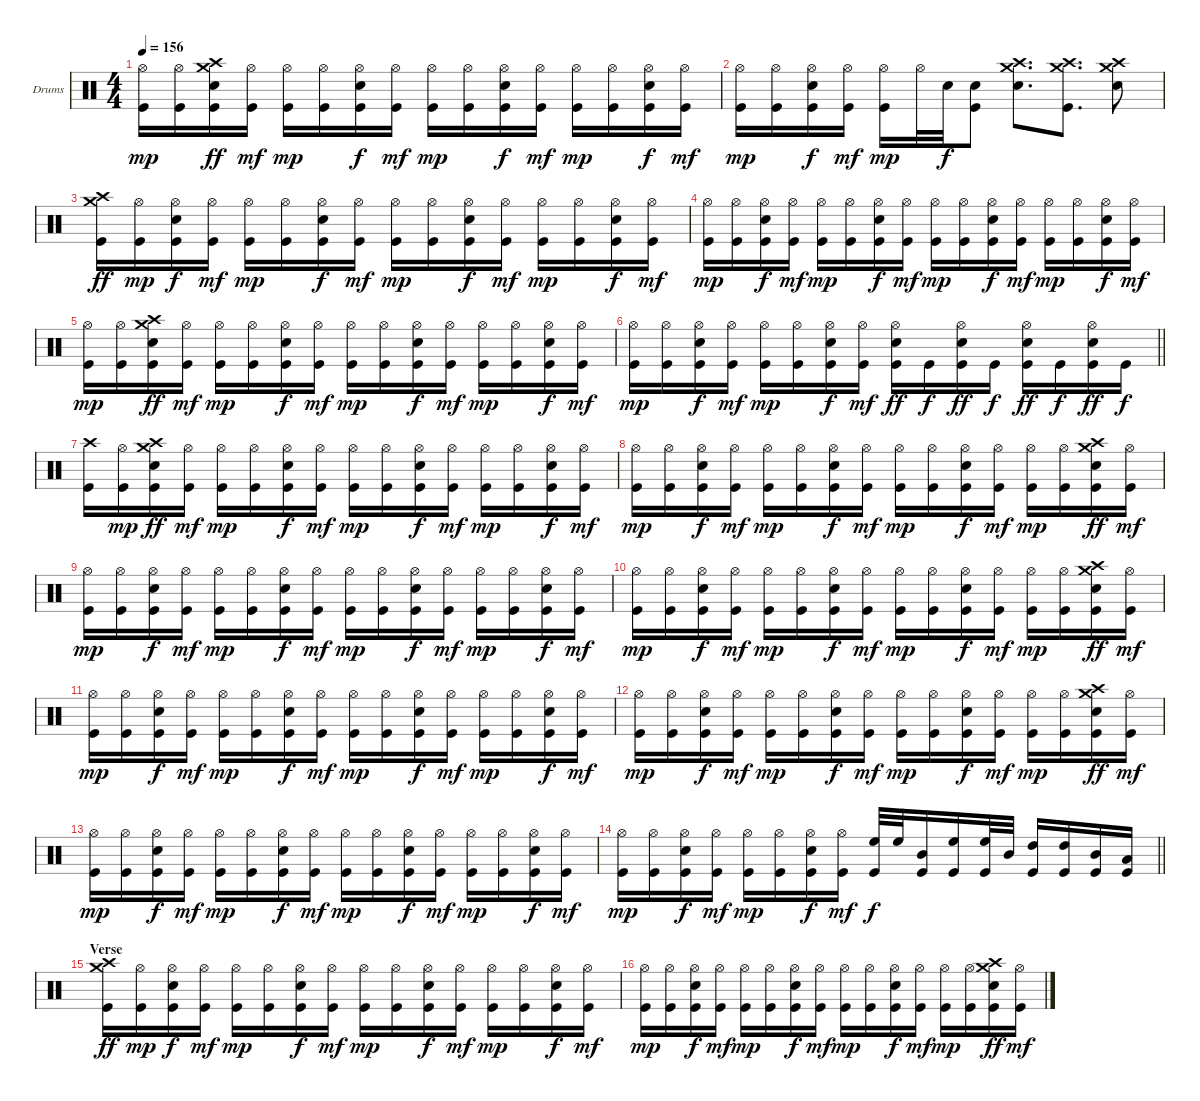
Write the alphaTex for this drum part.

\bracketExtendMode groupsimilarinstruments
\firstSystemTrackNameOrientation horizontal
\otherSystemsTrackNameOrientation horizontal
\track ("Drums" "Drums") {instrument percussion}
\staff {score}
\articulation defaults
\ts (4 4)
\tempo 156
\clef neutral
\ks c
("Hi-Hat (open)" "Kick (hit)").16{dy mp} ("Hi-Hat (open)" "Kick (hit)").16 ("Crash medium (hit)" "Crash high (hit)" "Snare (hit) 2" "Kick (hit)").16{dy ff} ("Hi-Hat (open)" "Kick (hit)").16{dy mf} ("Hi-Hat (open)" "Kick (hit)").16{dy mp} ("Hi-Hat (open)" "Kick (hit)").16 ("Hi-Hat (open)" "Snare (hit) 2" "Kick (hit)").16{dy f} ("Hi-Hat (open)" "Kick (hit)").16{dy mf} ("Hi-Hat (open)" "Kick (hit)").16{dy mp} ("Hi-Hat (open)" "Kick (hit)").16 ("Hi-Hat (open)" "Snare (hit) 2" "Kick (hit)").16{dy f} ("Hi-Hat (open)" "Kick (hit)").16{dy mf} ("Hi-Hat (open)" "Kick (hit)").16{dy mp} ("Hi-Hat (open)" "Kick (hit)").16 ("Hi-Hat (open)" "Snare (hit) 2" "Kick (hit)").16{dy f} ("Hi-Hat (open)" "Kick (hit)").16{dy mf} |
("Hi-Hat (open)" "Kick (hit)").16{dy mp} ("Hi-Hat (open)" "Kick (hit)").16 ("Hi-Hat (open)" "Snare (hit) 2" "Kick (hit)").16{dy f} ("Hi-Hat (open)" "Kick (hit)").16{dy mf} ("Hi-Hat (open)" "Kick (hit)").16{dy mp} "Hi-Hat (open)".32 "Snare (hit) 2".32{dy f} ("Snare (hit) 2" "Kick (hit)").8 ("Crash medium (hit)" "Crash high (hit)" "Snare (hit) 2").8{d} ("Crash medium (hit)" "Crash high (hit)" "Kick (hit)").8{d} ("Crash medium (hit)" "Crash high (hit)" "Snare (hit) 2").8 |
("Crash medium (hit)" "Crash high (hit)" "Kick (hit)").16{dy ff} ("Hi-Hat (open)" "Kick (hit)").16{dy mp} ("Hi-Hat (open)" "Snare (hit) 2" "Kick (hit)").16{dy f} ("Hi-Hat (open)" "Kick (hit)").16{dy mf} ("Hi-Hat (open)" "Kick (hit)").16{dy mp} ("Hi-Hat (open)" "Kick (hit)").16 ("Hi-Hat (open)" "Snare (hit) 2" "Kick (hit)").16{dy f} ("Hi-Hat (open)" "Kick (hit)").16{dy mf} ("Hi-Hat (open)" "Kick (hit)").16{dy mp} ("Hi-Hat (open)" "Kick (hit)").16 ("Hi-Hat (open)" "Snare (hit) 2" "Kick (hit)").16{dy f} ("Hi-Hat (open)" "Kick (hit)").16{dy mf} ("Hi-Hat (open)" "Kick (hit)").16{dy mp} ("Hi-Hat (open)" "Kick (hit)").16 ("Hi-Hat (open)" "Snare (hit) 2" "Kick (hit)").16{dy f} ("Hi-Hat (open)" "Kick (hit)").16{dy mf} |
("Hi-Hat (open)" "Kick (hit)").16{dy mp} ("Hi-Hat (open)" "Kick (hit)").16 ("Hi-Hat (open)" "Snare (hit) 2" "Kick (hit)").16{dy f} ("Hi-Hat (open)" "Kick (hit)").16{dy mf} ("Hi-Hat (open)" "Kick (hit)").16{dy mp} ("Hi-Hat (open)" "Kick (hit)").16 ("Hi-Hat (open)" "Snare (hit) 2" "Kick (hit)").16{dy f} ("Hi-Hat (open)" "Kick (hit)").16{dy mf} ("Hi-Hat (open)" "Kick (hit)").16{dy mp} ("Hi-Hat (open)" "Kick (hit)").16 ("Hi-Hat (open)" "Snare (hit) 2" "Kick (hit)").16{dy f} ("Hi-Hat (open)" "Kick (hit)").16{dy mf} ("Hi-Hat (open)" "Kick (hit)").16{dy mp} ("Hi-Hat (open)" "Kick (hit)").16 ("Hi-Hat (open)" "Snare (hit) 2" "Kick (hit)").16{dy f} ("Hi-Hat (open)" "Kick (hit)").16{dy mf} |
("Hi-Hat (open)" "Kick (hit)").16{dy mp} ("Hi-Hat (open)" "Kick (hit)").16 ("Crash medium (hit)" "Crash high (hit)" "Snare (hit) 2" "Kick (hit)").16{dy ff} ("Hi-Hat (open)" "Kick (hit)").16{dy mf} ("Hi-Hat (open)" "Kick (hit)").16{dy mp} ("Hi-Hat (open)" "Kick (hit)").16 ("Hi-Hat (open)" "Snare (hit) 2" "Kick (hit)").16{dy f} ("Hi-Hat (open)" "Kick (hit)").16{dy mf} ("Hi-Hat (open)" "Kick (hit)").16{dy mp} ("Hi-Hat (open)" "Kick (hit)").16 ("Hi-Hat (open)" "Snare (hit) 2" "Kick (hit)").16{dy f} ("Hi-Hat (open)" "Kick (hit)").16{dy mf} ("Hi-Hat (open)" "Kick (hit)").16{dy mp} ("Hi-Hat (open)" "Kick (hit)").16 ("Hi-Hat (open)" "Snare (hit) 2" "Kick (hit)").16{dy f} ("Hi-Hat (open)" "Kick (hit)").16{dy mf} |
\barLineRight lightlight
("Hi-Hat (open)" "Kick (hit)").16{dy mp} ("Hi-Hat (open)" "Kick (hit)").16 ("Hi-Hat (open)" "Snare (hit) 2" "Kick (hit)").16{dy f} ("Hi-Hat (open)" "Kick (hit)").16{dy mf} ("Hi-Hat (open)" "Kick (hit)").16{dy mp} ("Hi-Hat (open)" "Kick (hit)").16 ("Hi-Hat (open)" "Snare (hit) 2" "Kick (hit)").16{dy f} ("Hi-Hat (open)" "Kick (hit)").16{dy mf} ("Hi-Hat (open)" "Snare (hit) 2" "Kick (hit)").16{dy ff} "Kick (hit)".16{dy f} ("Hi-Hat (open)" "Snare (hit) 2" "Kick (hit)").16{dy ff} "Kick (hit)".16{dy f} ("Hi-Hat (open)" "Snare (hit) 2" "Kick (hit)").16{dy ff} "Kick (hit)".16{dy f} ("Hi-Hat (open)" "Snare (hit) 2" "Kick (hit)").16{dy ff} "Kick (hit)".16{dy f} |
("Crash high (hit)" "Kick (hit)").16 ("Hi-Hat (open)" "Kick (hit)").16{dy mp} ("Crash medium (hit)" "Crash high (hit)" "Snare (hit) 2" "Kick (hit)").16{dy ff} ("Hi-Hat (open)" "Kick (hit)").16{dy mf} ("Hi-Hat (open)" "Kick (hit)").16{dy mp} ("Hi-Hat (open)" "Kick (hit)").16 ("Hi-Hat (open)" "Snare (hit) 2" "Kick (hit)").16{dy f} ("Hi-Hat (open)" "Kick (hit)").16{dy mf} ("Hi-Hat (open)" "Kick (hit)").16{dy mp} ("Hi-Hat (open)" "Kick (hit)").16 ("Hi-Hat (open)" "Snare (hit) 2" "Kick (hit)").16{dy f} ("Hi-Hat (open)" "Kick (hit)").16{dy mf} ("Hi-Hat (open)" "Kick (hit)").16{dy mp} ("Hi-Hat (open)" "Kick (hit)").16 ("Hi-Hat (open)" "Snare (hit) 2" "Kick (hit)").16{dy f} ("Hi-Hat (open)" "Kick (hit)").16{dy mf} |
("Hi-Hat (open)" "Kick (hit)").16{dy mp} ("Hi-Hat (open)" "Kick (hit)").16 ("Hi-Hat (open)" "Snare (hit) 2" "Kick (hit)").16{dy f} ("Hi-Hat (open)" "Kick (hit)").16{dy mf} ("Hi-Hat (open)" "Kick (hit)").16{dy mp} ("Hi-Hat (open)" "Kick (hit)").16 ("Hi-Hat (open)" "Snare (hit) 2" "Kick (hit)").16{dy f} ("Hi-Hat (open)" "Kick (hit)").16{dy mf} ("Hi-Hat (open)" "Kick (hit)").16{dy mp} ("Hi-Hat (open)" "Kick (hit)").16 ("Hi-Hat (open)" "Snare (hit) 2" "Kick (hit)").16{dy f} ("Hi-Hat (open)" "Kick (hit)").16{dy mf} ("Hi-Hat (open)" "Kick (hit)").16{dy mp} ("Hi-Hat (open)" "Kick (hit)").16 ("Crash medium (hit)" "Crash high (hit)" "Snare (hit) 2" "Kick (hit)").16{dy ff} ("Hi-Hat (open)" "Kick (hit)").16{dy mf} |
("Hi-Hat (open)" "Kick (hit)").16{dy mp} ("Hi-Hat (open)" "Kick (hit)").16 ("Hi-Hat (open)" "Snare (hit) 2" "Kick (hit)").16{dy f} ("Hi-Hat (open)" "Kick (hit)").16{dy mf} ("Hi-Hat (open)" "Kick (hit)").16{dy mp} ("Hi-Hat (open)" "Kick (hit)").16 ("Hi-Hat (open)" "Snare (hit) 2" "Kick (hit)").16{dy f} ("Hi-Hat (open)" "Kick (hit)").16{dy mf} ("Hi-Hat (open)" "Kick (hit)").16{dy mp} ("Hi-Hat (open)" "Kick (hit)").16 ("Hi-Hat (open)" "Snare (hit) 2" "Kick (hit)").16{dy f} ("Hi-Hat (open)" "Kick (hit)").16{dy mf} ("Hi-Hat (open)" "Kick (hit)").16{dy mp} ("Hi-Hat (open)" "Kick (hit)").16 ("Hi-Hat (open)" "Snare (hit) 2" "Kick (hit)").16{dy f} ("Hi-Hat (open)" "Kick (hit)").16{dy mf} |
("Hi-Hat (open)" "Kick (hit)").16{dy mp} ("Hi-Hat (open)" "Kick (hit)").16 ("Hi-Hat (open)" "Snare (hit) 2" "Kick (hit)").16{dy f} ("Hi-Hat (open)" "Kick (hit)").16{dy mf} ("Hi-Hat (open)" "Kick (hit)").16{dy mp} ("Hi-Hat (open)" "Kick (hit)").16 ("Hi-Hat (open)" "Snare (hit) 2" "Kick (hit)").16{dy f} ("Hi-Hat (open)" "Kick (hit)").16{dy mf} ("Hi-Hat (open)" "Kick (hit)").16{dy mp} ("Hi-Hat (open)" "Kick (hit)").16 ("Hi-Hat (open)" "Snare (hit) 2" "Kick (hit)").16{dy f} ("Hi-Hat (open)" "Kick (hit)").16{dy mf} ("Hi-Hat (open)" "Kick (hit)").16{dy mp} ("Hi-Hat (open)" "Kick (hit)").16 ("Crash medium (hit)" "Crash high (hit)" "Snare (hit) 2" "Kick (hit)").16{dy ff} ("Hi-Hat (open)" "Kick (hit)").16{dy mf} |
("Hi-Hat (open)" "Kick (hit)").16{dy mp} ("Hi-Hat (open)" "Kick (hit)").16 ("Hi-Hat (open)" "Snare (hit) 2" "Kick (hit)").16{dy f} ("Hi-Hat (open)" "Kick (hit)").16{dy mf} ("Hi-Hat (open)" "Kick (hit)").16{dy mp} ("Hi-Hat (open)" "Kick (hit)").16 ("Hi-Hat (open)" "Snare (hit) 2" "Kick (hit)").16{dy f} ("Hi-Hat (open)" "Kick (hit)").16{dy mf} ("Hi-Hat (open)" "Kick (hit)").16{dy mp} ("Hi-Hat (open)" "Kick (hit)").16 ("Hi-Hat (open)" "Snare (hit) 2" "Kick (hit)").16{dy f} ("Hi-Hat (open)" "Kick (hit)").16{dy mf} ("Hi-Hat (open)" "Kick (hit)").16{dy mp} ("Hi-Hat (open)" "Kick (hit)").16 ("Hi-Hat (open)" "Snare (hit) 2" "Kick (hit)").16{dy f} ("Hi-Hat (open)" "Kick (hit)").16{dy mf} |
("Hi-Hat (open)" "Kick (hit)").16{dy mp} ("Hi-Hat (open)" "Kick (hit)").16 ("Hi-Hat (open)" "Snare (hit) 2" "Kick (hit)").16{dy f} ("Hi-Hat (open)" "Kick (hit)").16{dy mf} ("Hi-Hat (open)" "Kick (hit)").16{dy mp} ("Hi-Hat (open)" "Kick (hit)").16 ("Hi-Hat (open)" "Snare (hit) 2" "Kick (hit)").16{dy f} ("Hi-Hat (open)" "Kick (hit)").16{dy mf} ("Hi-Hat (open)" "Kick (hit)").16{dy mp} ("Hi-Hat (open)" "Kick (hit)").16 ("Hi-Hat (open)" "Snare (hit) 2" "Kick (hit)").16{dy f} ("Hi-Hat (open)" "Kick (hit)").16{dy mf} ("Hi-Hat (open)" "Kick (hit)").16{dy mp} ("Hi-Hat (open)" "Kick (hit)").16 ("Crash medium (hit)" "Crash high (hit)" "Snare (hit) 2" "Kick (hit)").16{dy ff} ("Hi-Hat (open)" "Kick (hit)").16{dy mf} |
("Hi-Hat (open)" "Kick (hit)").16{dy mp} ("Hi-Hat (open)" "Kick (hit)").16 ("Hi-Hat (open)" "Snare (hit) 2" "Kick (hit)").16{dy f} ("Hi-Hat (open)" "Kick (hit)").16{dy mf} ("Hi-Hat (open)" "Kick (hit)").16{dy mp} ("Hi-Hat (open)" "Kick (hit)").16 ("Hi-Hat (open)" "Snare (hit) 2" "Kick (hit)").16{dy f} ("Hi-Hat (open)" "Kick (hit)").16{dy mf} ("Hi-Hat (open)" "Kick (hit)").16{dy mp} ("Hi-Hat (open)" "Kick (hit)").16 ("Hi-Hat (open)" "Snare (hit) 2" "Kick (hit)").16{dy f} ("Hi-Hat (open)" "Kick (hit)").16{dy mf} ("Hi-Hat (open)" "Kick (hit)").16{dy mp} ("Hi-Hat (open)" "Kick (hit)").16 ("Hi-Hat (open)" "Snare (hit) 2" "Kick (hit)").16{dy f} ("Hi-Hat (open)" "Kick (hit)").16{dy mf} |
\barLineRight lightlight
("Hi-Hat (open)" "Kick (hit)").16{dy mp} ("Hi-Hat (open)" "Kick (hit)").16 ("Hi-Hat (open)" "Snare (hit) 2" "Kick (hit)").16{dy f} ("Hi-Hat (open)" "Kick (hit)").16{dy mf} ("Hi-Hat (open)" "Kick (hit)").16{dy mp} ("Hi-Hat (open)" "Kick (hit)").16 ("Hi-Hat (open)" "Snare (hit) 2" "Kick (hit)").16{dy f} ("Hi-Hat (open)" "Kick (hit)").16{dy mf} ("High Floor Tom (hit)" "Kick (hit)").32{dy f} "High Floor Tom (hit)".32 ("Mid Tom (hit)" "Kick (hit)").16 ("High Floor Tom (hit)" "Kick (hit)").16 ("High Floor Tom (hit)" "Kick (hit)").32 "Mid Tom (hit)".32 ("High Tom (hit)" "Kick (hit)").16 ("High Tom (hit)" "Kick (hit)").16 ("Mid Tom (hit)" "Kick (hit)").16 ("Low Tom (hit)" "Kick (hit)").16 |
\section ("" "Verse")
("Crash medium (hit)" "Crash high (hit)" "Kick (hit)").16{dy ff} ("Hi-Hat (open)" "Kick (hit)").16{dy mp} ("Hi-Hat (open)" "Snare (hit) 2" "Kick (hit)").16{dy f} ("Hi-Hat (open)" "Kick (hit)").16{dy mf} ("Hi-Hat (open)" "Kick (hit)").16{dy mp} ("Hi-Hat (open)" "Kick (hit)").16 ("Hi-Hat (open)" "Snare (hit) 2" "Kick (hit)").16{dy f} ("Hi-Hat (open)" "Kick (hit)").16{dy mf} ("Hi-Hat (open)" "Kick (hit)").16{dy mp} ("Hi-Hat (open)" "Kick (hit)").16 ("Hi-Hat (open)" "Snare (hit) 2" "Kick (hit)").16{dy f} ("Hi-Hat (open)" "Kick (hit)").16{dy mf} ("Hi-Hat (open)" "Kick (hit)").16{dy mp} ("Hi-Hat (open)" "Kick (hit)").16 ("Hi-Hat (open)" "Snare (hit) 2" "Kick (hit)").16{dy f} ("Hi-Hat (open)" "Kick (hit)").16{dy mf} |
("Hi-Hat (open)" "Kick (hit)").16{dy mp} ("Hi-Hat (open)" "Kick (hit)").16 ("Hi-Hat (open)" "Snare (hit) 2" "Kick (hit)").16{dy f} ("Hi-Hat (open)" "Kick (hit)").16{dy mf} ("Hi-Hat (open)" "Kick (hit)").16{dy mp} ("Hi-Hat (open)" "Kick (hit)").16 ("Hi-Hat (open)" "Snare (hit) 2" "Kick (hit)").16{dy f} ("Hi-Hat (open)" "Kick (hit)").16{dy mf} ("Hi-Hat (open)" "Kick (hit)").16{dy mp} ("Hi-Hat (open)" "Kick (hit)").16 ("Hi-Hat (open)" "Snare (hit) 2" "Kick (hit)").16{dy f} ("Hi-Hat (open)" "Kick (hit)").16{dy mf} ("Hi-Hat (open)" "Kick (hit)").16{dy mp} ("Hi-Hat (open)" "Kick (hit)").16 ("Crash medium (hit)" "Crash high (hit)" "Snare (hit) 2" "Kick (hit)").16{dy ff} ("Hi-Hat (open)" "Kick (hit)").16{dy mf}
